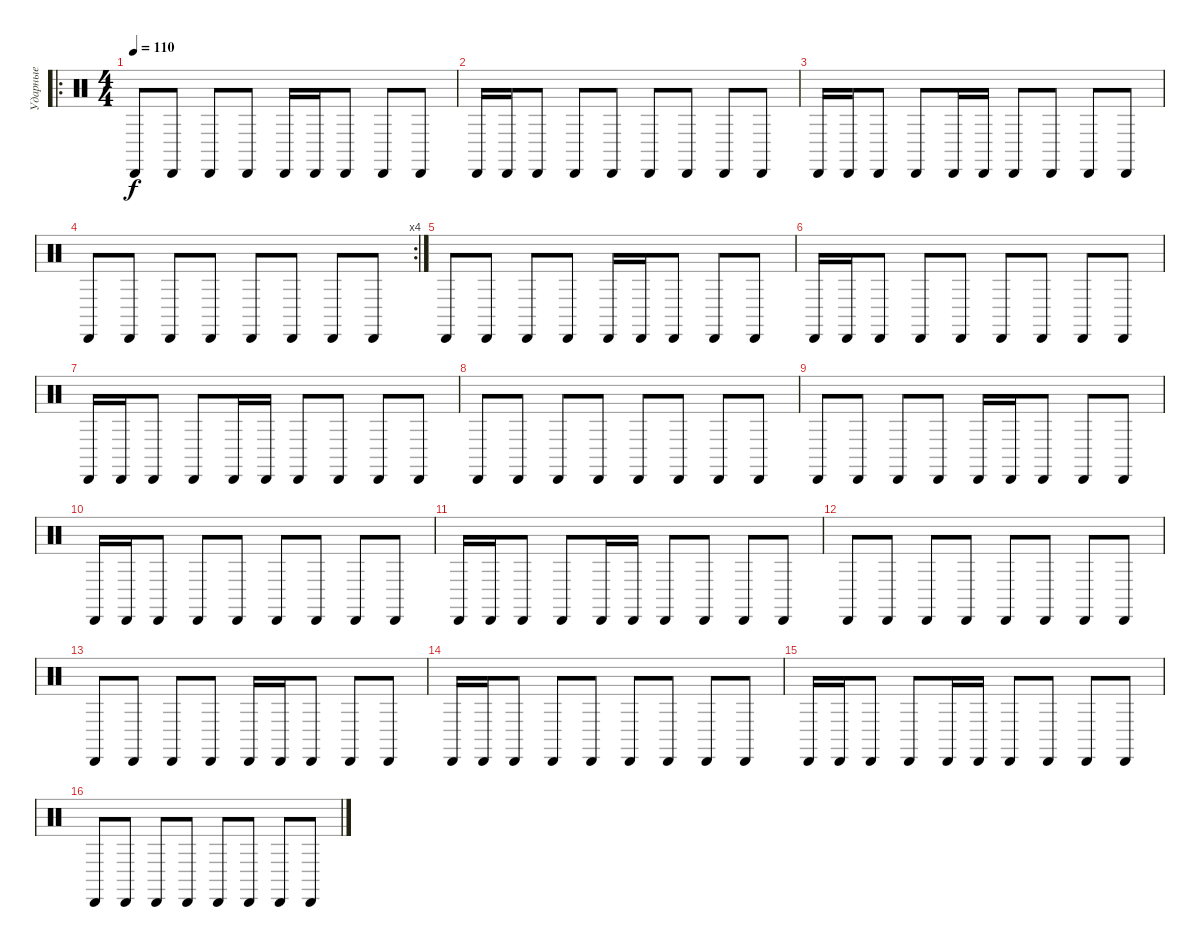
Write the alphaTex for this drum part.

\track ("Ударные" "Ударные") {instrument percussion}
\staff {score}
\articulation defaults
\ro
\ts (4 4)
\tempo 110
\clef neutral
\ks c "Cabasa (hit)".8{dy f} "Cabasa (hit)".8 "Cabasa (hit)".8 "Cabasa (hit)".8 "Cabasa (hit)".16 "Cabasa (hit)".16 "Cabasa (hit)".8 "Cabasa (hit)".8 "Cabasa (hit)".8
|
"Cabasa (hit)".16 "Cabasa (hit)".16 "Cabasa (hit)".8 "Cabasa (hit)".8 "Cabasa (hit)".8 "Cabasa (hit)".8 "Cabasa (hit)".8 "Cabasa (hit)".8 "Cabasa (hit)".8 |
"Cabasa (hit)".16 "Cabasa (hit)".16 "Cabasa (hit)".8 "Cabasa (hit)".8 "Cabasa (hit)".16 "Cabasa (hit)".16 "Cabasa (hit)".8 "Cabasa (hit)".8 "Cabasa (hit)".8 "Cabasa (hit)".8 |
\rc 4 "Cabasa (hit)".8 "Cabasa (hit)".8 "Cabasa (hit)".8 "Cabasa (hit)".8 "Cabasa (hit)".8 "Cabasa (hit)".8 "Cabasa (hit)".8 "Cabasa (hit)".8
|
"Cabasa (hit)".8 "Cabasa (hit)".8 "Cabasa (hit)".8 "Cabasa (hit)".8 "Cabasa (hit)".16 "Cabasa (hit)".16 "Cabasa (hit)".8 "Cabasa (hit)".8 "Cabasa (hit)".8 |
"Cabasa (hit)".16 "Cabasa (hit)".16 "Cabasa (hit)".8 "Cabasa (hit)".8 "Cabasa (hit)".8 "Cabasa (hit)".8 "Cabasa (hit)".8 "Cabasa (hit)".8 "Cabasa (hit)".8 |
"Cabasa (hit)".16 "Cabasa (hit)".16 "Cabasa (hit)".8 "Cabasa (hit)".8 "Cabasa (hit)".16 "Cabasa (hit)".16 "Cabasa (hit)".8 "Cabasa (hit)".8 "Cabasa (hit)".8 "Cabasa (hit)".8 |
"Cabasa (hit)".8 "Cabasa (hit)".8 "Cabasa (hit)".8 "Cabasa (hit)".8 "Cabasa (hit)".8 "Cabasa (hit)".8 "Cabasa (hit)".8 "Cabasa (hit)".8 |
"Cabasa (hit)".8 "Cabasa (hit)".8 "Cabasa (hit)".8 "Cabasa (hit)".8 "Cabasa (hit)".16 "Cabasa (hit)".16 "Cabasa (hit)".8 "Cabasa (hit)".8 "Cabasa (hit)".8 |
"Cabasa (hit)".16 "Cabasa (hit)".16 "Cabasa (hit)".8 "Cabasa (hit)".8 "Cabasa (hit)".8 "Cabasa (hit)".8 "Cabasa (hit)".8 "Cabasa (hit)".8 "Cabasa (hit)".8 |
"Cabasa (hit)".16 "Cabasa (hit)".16 "Cabasa (hit)".8 "Cabasa (hit)".8 "Cabasa (hit)".16 "Cabasa (hit)".16 "Cabasa (hit)".8 "Cabasa (hit)".8 "Cabasa (hit)".8 "Cabasa (hit)".8 |
"Cabasa (hit)".8 "Cabasa (hit)".8 "Cabasa (hit)".8 "Cabasa (hit)".8 "Cabasa (hit)".8 "Cabasa (hit)".8 "Cabasa (hit)".8 "Cabasa (hit)".8 |
"Cabasa (hit)".8 "Cabasa (hit)".8 "Cabasa (hit)".8 "Cabasa (hit)".8 "Cabasa (hit)".16 "Cabasa (hit)".16 "Cabasa (hit)".8 "Cabasa (hit)".8 "Cabasa (hit)".8 |
"Cabasa (hit)".16 "Cabasa (hit)".16 "Cabasa (hit)".8 "Cabasa (hit)".8 "Cabasa (hit)".8 "Cabasa (hit)".8 "Cabasa (hit)".8 "Cabasa (hit)".8 "Cabasa (hit)".8 |
"Cabasa (hit)".16 "Cabasa (hit)".16 "Cabasa (hit)".8 "Cabasa (hit)".8 "Cabasa (hit)".16 "Cabasa (hit)".16 "Cabasa (hit)".8 "Cabasa (hit)".8 "Cabasa (hit)".8 "Cabasa (hit)".8 |
"Cabasa (hit)".8 "Cabasa (hit)".8 "Cabasa (hit)".8 "Cabasa (hit)".8 "Cabasa (hit)".8 "Cabasa (hit)".8 "Cabasa (hit)".8 "Cabasa (hit)".8
